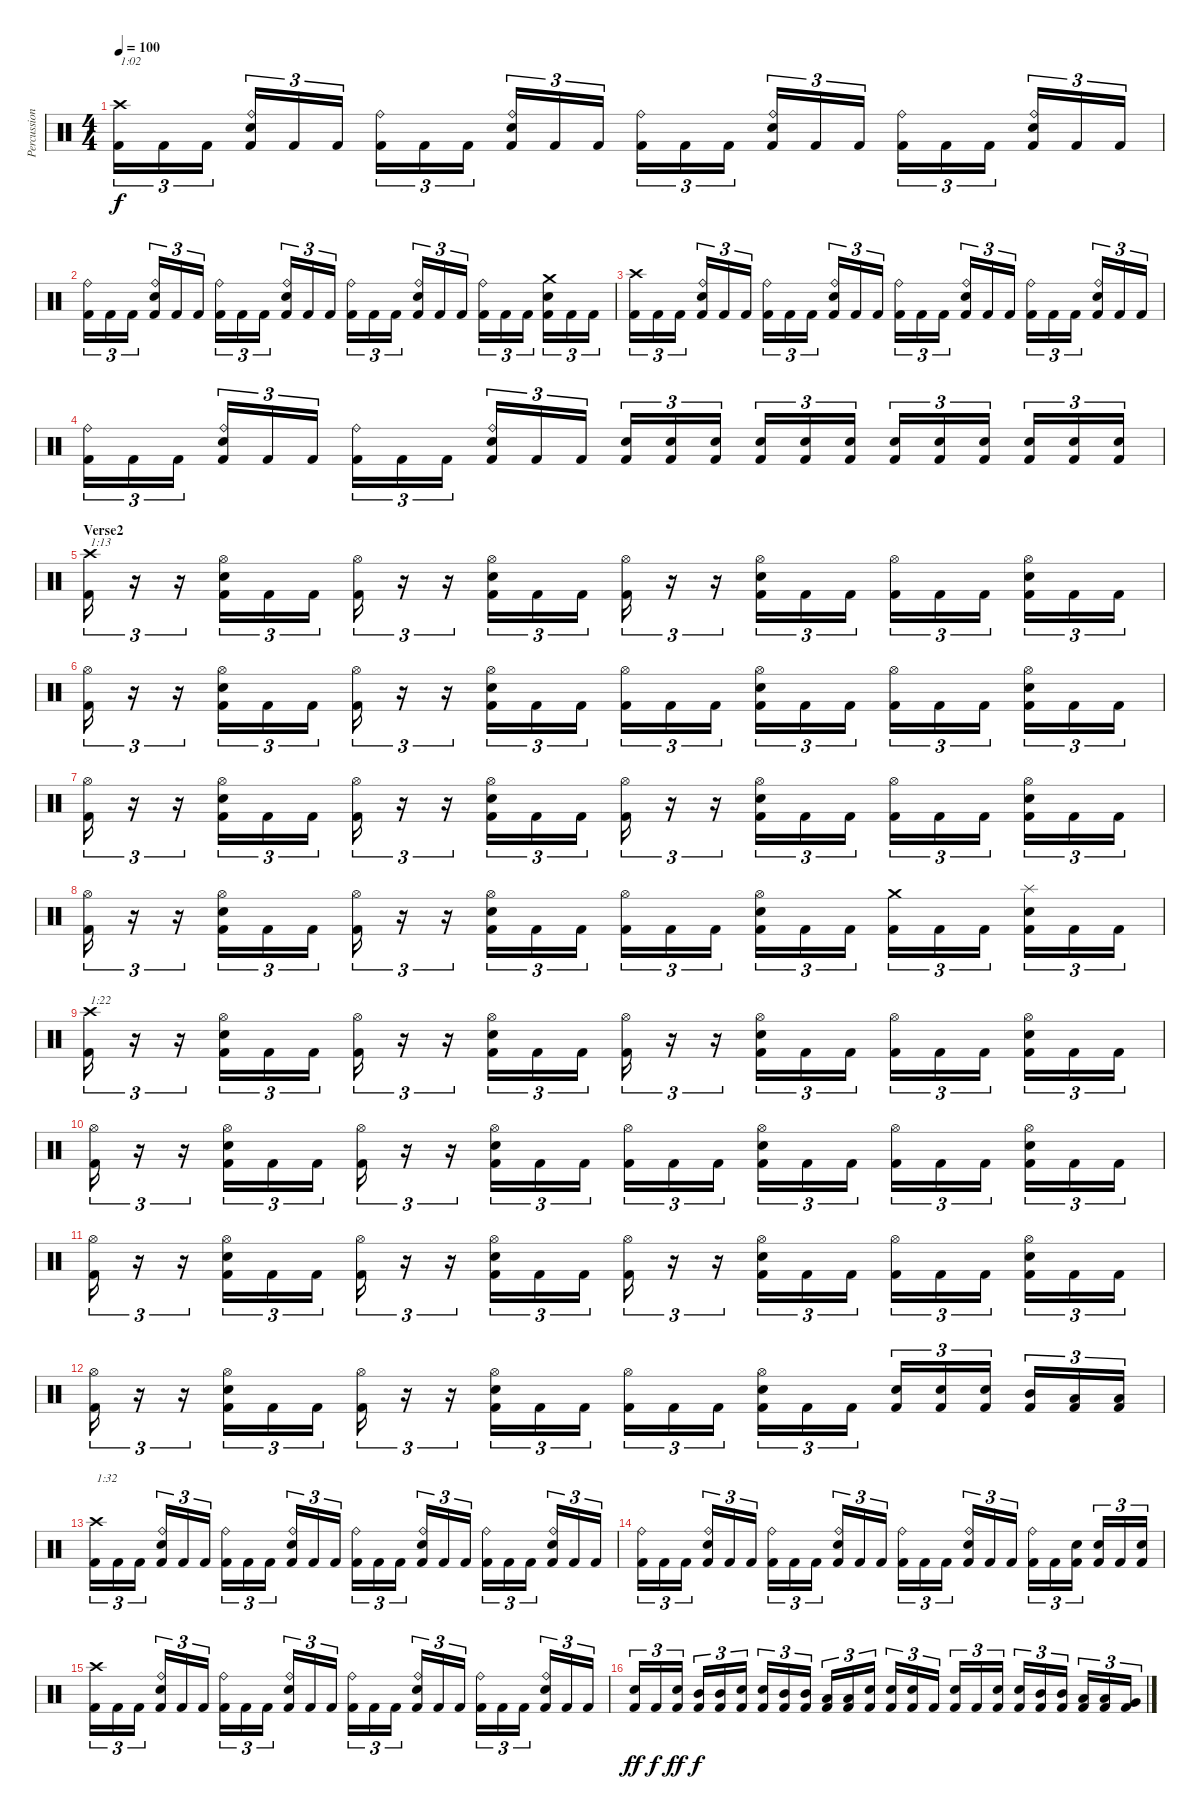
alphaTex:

\track ("Percussion" "Percussion") {instrument percussion}
\staff {score}
\articulation defaults
\ts (4 4)
\tempo 100
\clef neutral
\ks c
("Crash high (hit)" "Kick (hit) 2").16{tu (3 2) txt "1:02" dy f} "Kick (hit) 2".16{tu (3 2)} "Kick (hit) 2".16{tu (3 2)} ("Ride (bell)" "Snare (hit) 2" "Kick (hit) 2").16{tu (3 2)} "Kick (hit) 2".16{tu (3 2)} "Kick (hit) 2".16{tu (3 2)} ("Ride (bell)" "Kick (hit) 2").16{tu (3 2)} "Kick (hit) 2".16{tu (3 2)} "Kick (hit) 2".16{tu (3 2)} ("Ride (bell)" "Snare (hit) 2" "Kick (hit) 2").16{tu (3 2)} "Kick (hit) 2".16{tu (3 2)} "Kick (hit) 2".16{tu (3 2)} ("Ride (bell)" "Kick (hit) 2").16{tu (3 2)} "Kick (hit) 2".16{tu (3 2)} "Kick (hit) 2".16{tu (3 2)} ("Ride (bell)" "Snare (hit) 2" "Kick (hit) 2").16{tu (3 2)} "Kick (hit) 2".16{tu (3 2)} "Kick (hit) 2".16{tu (3 2)} ("Ride (bell)" "Kick (hit) 2").16{tu (3 2)} "Kick (hit) 2".16{tu (3 2)} "Kick (hit) 2".16{tu (3 2)} ("Ride (bell)" "Snare (hit) 2" "Kick (hit) 2").16{tu (3 2)} "Kick (hit) 2".16{tu (3 2)} "Kick (hit) 2".16{tu (3 2)} |
("Ride (bell)" "Kick (hit) 2").16{tu (3 2)} "Kick (hit) 2".16{tu (3 2)} "Kick (hit) 2".16{tu (3 2)} ("Ride (bell)" "Snare (hit) 2" "Kick (hit) 2").16{tu (3 2)} "Kick (hit) 2".16{tu (3 2)} "Kick (hit) 2".16{tu (3 2)} ("Ride (bell)" "Kick (hit) 2").16{tu (3 2)} "Kick (hit) 2".16{tu (3 2)} "Kick (hit) 2".16{tu (3 2)} ("Ride (bell)" "Snare (hit) 2" "Kick (hit) 2").16{tu (3 2)} "Kick (hit) 2".16{tu (3 2)} "Kick (hit) 2".16{tu (3 2)} ("Ride (bell)" "Kick (hit) 2").16{tu (3 2)} "Kick (hit) 2".16{tu (3 2)} "Kick (hit) 2".16{tu (3 2)} ("Ride (bell)" "Snare (hit) 2" "Kick (hit) 2").16{tu (3 2)} "Kick (hit) 2".16{tu (3 2)} "Kick (hit) 2".16{tu (3 2)} ("Ride (bell)" "Kick (hit) 2").16{tu (3 2)} "Kick (hit) 2".16{tu (3 2)} "Kick (hit) 2".16{tu (3 2)} ("Crash medium (hit)" "Snare (hit) 2" "Kick (hit) 2").16{tu (3 2)} "Kick (hit) 2".16{tu (3 2)} "Kick (hit) 2".16{tu (3 2)} |
("Crash high (hit)" "Kick (hit) 2").16{tu (3 2)} "Kick (hit) 2".16{tu (3 2)} "Kick (hit) 2".16{tu (3 2)} ("Ride (bell)" "Snare (hit) 2" "Kick (hit) 2").16{tu (3 2)} "Kick (hit) 2".16{tu (3 2)} "Kick (hit) 2".16{tu (3 2)} ("Ride (bell)" "Kick (hit) 2").16{tu (3 2)} "Kick (hit) 2".16{tu (3 2)} "Kick (hit) 2".16{tu (3 2)} ("Ride (bell)" "Snare (hit) 2" "Kick (hit) 2").16{tu (3 2)} "Kick (hit) 2".16{tu (3 2)} "Kick (hit) 2".16{tu (3 2)} ("Ride (bell)" "Kick (hit) 2").16{tu (3 2)} "Kick (hit) 2".16{tu (3 2)} "Kick (hit) 2".16{tu (3 2)} ("Ride (bell)" "Snare (hit) 2" "Kick (hit) 2").16{tu (3 2)} "Kick (hit) 2".16{tu (3 2)} "Kick (hit) 2".16{tu (3 2)} ("Ride (bell)" "Kick (hit) 2").16{tu (3 2)} "Kick (hit) 2".16{tu (3 2)} "Kick (hit) 2".16{tu (3 2)} ("Ride (bell)" "Snare (hit) 2" "Kick (hit) 2").16{tu (3 2)} "Kick (hit) 2".16{tu (3 2)} "Kick (hit) 2".16{tu (3 2)} |
("Ride (bell)" "Kick (hit) 2").16{tu (3 2)} "Kick (hit) 2".16{tu (3 2)} "Kick (hit) 2".16{tu (3 2)} ("Ride (bell)" "Snare (hit) 2" "Kick (hit) 2").16{tu (3 2)} "Kick (hit) 2".16{tu (3 2)} "Kick (hit) 2".16{tu (3 2)} ("Ride (bell)" "Kick (hit) 2").16{tu (3 2)} "Kick (hit) 2".16{tu (3 2)} "Kick (hit) 2".16{tu (3 2)} ("Ride (bell)" "Snare (hit) 2" "Kick (hit) 2").16{tu (3 2)} "Kick (hit) 2".16{tu (3 2)} "Kick (hit) 2".16{tu (3 2)} ("Snare (hit) 2" "Kick (hit) 2").16{tu (3 2)} ("Snare (hit) 2" "Kick (hit) 2").16{tu (3 2)} ("Snare (hit) 2" "Kick (hit) 2").16{tu (3 2)} ("Snare (hit) 2" "Kick (hit) 2").16{tu (3 2)} ("Snare (hit) 2" "Kick (hit) 2").16{tu (3 2)} ("Snare (hit) 2" "Kick (hit) 2").16{tu (3 2)} ("Snare (hit) 2" "Kick (hit) 2").16{tu (3 2)} ("Snare (hit) 2" "Kick (hit) 2").16{tu (3 2)} ("Snare (hit) 2" "Kick (hit) 2").16{tu (3 2)} ("Snare (hit) 2" "Kick (hit) 2").16{tu (3 2)} ("Snare (hit) 2" "Kick (hit) 2").16{tu (3 2)} ("Snare (hit) 2" "Kick (hit) 2").16{tu (3 2)} |
\section ("" "Verse2")
("Crash high (hit)" "Kick (hit) 2").16{tu (3 2) txt "1:13"} r.16{tu (3 2)} r.16{tu (3 2)} ("Hi-Hat (open)" "Snare (hit) 2" "Kick (hit) 2").16{tu (3 2)} "Kick (hit) 2".16{tu (3 2)} "Kick (hit) 2".16{tu (3 2)} ("Hi-Hat (open)" "Kick (hit) 2").16{tu (3 2)} r.16{tu (3 2)} r.16{tu (3 2)} ("Hi-Hat (open)" "Snare (hit) 2" "Kick (hit) 2").16{tu (3 2)} "Kick (hit) 2".16{tu (3 2)} "Kick (hit) 2".16{tu (3 2)} ("Hi-Hat (open)" "Kick (hit) 2").16{tu (3 2)} r.16{tu (3 2)} r.16{tu (3 2)} ("Hi-Hat (open)" "Snare (hit) 2" "Kick (hit) 2").16{tu (3 2)} "Kick (hit) 2".16{tu (3 2)} "Kick (hit) 2".16{tu (3 2)} ("Hi-Hat (open)" "Kick (hit) 2").16{tu (3 2)} "Kick (hit) 2".16{tu (3 2)} "Kick (hit) 2".16{tu (3 2)} ("Hi-Hat (open)" "Snare (hit) 2" "Kick (hit) 2").16{tu (3 2)} "Kick (hit) 2".16{tu (3 2)} "Kick (hit) 2".16{tu (3 2)} |
("Hi-Hat (open)" "Kick (hit) 2").16{tu (3 2)} r.16{tu (3 2)} r.16{tu (3 2)} ("Hi-Hat (open)" "Snare (hit) 2" "Kick (hit) 2").16{tu (3 2)} "Kick (hit) 2".16{tu (3 2)} "Kick (hit) 2".16{tu (3 2)} ("Hi-Hat (open)" "Kick (hit) 2").16{tu (3 2)} r.16{tu (3 2)} r.16{tu (3 2)} ("Hi-Hat (open)" "Snare (hit) 2" "Kick (hit) 2").16{tu (3 2)} "Kick (hit) 2".16{tu (3 2)} "Kick (hit) 2".16{tu (3 2)} ("Hi-Hat (open)" "Kick (hit) 2").16{tu (3 2)} "Kick (hit) 2".16{tu (3 2)} "Kick (hit) 2".16{tu (3 2)} ("Hi-Hat (open)" "Snare (hit) 2" "Kick (hit) 2").16{tu (3 2)} "Kick (hit) 2".16{tu (3 2)} "Kick (hit) 2".16{tu (3 2)} ("Hi-Hat (open)" "Kick (hit) 2").16{tu (3 2)} "Kick (hit) 2".16{tu (3 2)} "Kick (hit) 2".16{tu (3 2)} ("Hi-Hat (open)" "Snare (hit) 2" "Kick (hit) 2").16{tu (3 2)} "Kick (hit) 2".16{tu (3 2)} "Kick (hit) 2".16{tu (3 2)} |
("Hi-Hat (open)" "Kick (hit) 2").16{tu (3 2)} r.16{tu (3 2)} r.16{tu (3 2)} ("Hi-Hat (open)" "Snare (hit) 2" "Kick (hit) 2").16{tu (3 2)} "Kick (hit) 2".16{tu (3 2)} "Kick (hit) 2".16{tu (3 2)} ("Hi-Hat (open)" "Kick (hit) 2").16{tu (3 2)} r.16{tu (3 2)} r.16{tu (3 2)} ("Hi-Hat (open)" "Snare (hit) 2" "Kick (hit) 2").16{tu (3 2)} "Kick (hit) 2".16{tu (3 2)} "Kick (hit) 2".16{tu (3 2)} ("Hi-Hat (open)" "Kick (hit) 2").16{tu (3 2)} r.16{tu (3 2)} r.16{tu (3 2)} ("Hi-Hat (open)" "Snare (hit) 2" "Kick (hit) 2").16{tu (3 2)} "Kick (hit) 2".16{tu (3 2)} "Kick (hit) 2".16{tu (3 2)} ("Hi-Hat (open)" "Kick (hit) 2").16{tu (3 2)} "Kick (hit) 2".16{tu (3 2)} "Kick (hit) 2".16{tu (3 2)} ("Hi-Hat (open)" "Snare (hit) 2" "Kick (hit) 2").16{tu (3 2)} "Kick (hit) 2".16{tu (3 2)} "Kick (hit) 2".16{tu (3 2)} |
("Hi-Hat (open)" "Kick (hit) 2").16{tu (3 2)} r.16{tu (3 2)} r.16{tu (3 2)} ("Hi-Hat (open)" "Snare (hit) 2" "Kick (hit) 2").16{tu (3 2)} "Kick (hit) 2".16{tu (3 2)} "Kick (hit) 2".16{tu (3 2)} ("Hi-Hat (open)" "Kick (hit) 2").16{tu (3 2)} r.16{tu (3 2)} r.16{tu (3 2)} ("Hi-Hat (open)" "Snare (hit) 2" "Kick (hit) 2").16{tu (3 2)} "Kick (hit) 2".16{tu (3 2)} "Kick (hit) 2".16{tu (3 2)} ("Hi-Hat (open)" "Kick (hit) 2").16{tu (3 2)} "Kick (hit) 2".16{tu (3 2)} "Kick (hit) 2".16{tu (3 2)} ("Hi-Hat (open)" "Snare (hit) 2" "Kick (hit) 2").16{tu (3 2)} "Kick (hit) 2".16{tu (3 2)} "Kick (hit) 2".16{tu (3 2)} ("Crash medium (hit)" "Kick (hit) 2").16{tu (3 2)} "Kick (hit) 2".16{tu (3 2)} "Kick (hit) 2".16{tu (3 2)} ("Splash (hit)" "Snare (hit) 2" "Kick (hit) 2").16{tu (3 2)} "Kick (hit) 2".16{tu (3 2)} "Kick (hit) 2".16{tu (3 2)} |
("Crash high (hit)" "Kick (hit) 2").16{tu (3 2) txt "1:22"} r.16{tu (3 2)} r.16{tu (3 2)} ("Hi-Hat (open)" "Snare (hit) 2" "Kick (hit) 2").16{tu (3 2)} "Kick (hit) 2".16{tu (3 2)} "Kick (hit) 2".16{tu (3 2)} ("Hi-Hat (open)" "Kick (hit) 2").16{tu (3 2)} r.16{tu (3 2)} r.16{tu (3 2)} ("Hi-Hat (open)" "Snare (hit) 2" "Kick (hit) 2").16{tu (3 2)} "Kick (hit) 2".16{tu (3 2)} "Kick (hit) 2".16{tu (3 2)} ("Hi-Hat (open)" "Kick (hit) 2").16{tu (3 2)} r.16{tu (3 2)} r.16{tu (3 2)} ("Hi-Hat (open)" "Snare (hit) 2" "Kick (hit) 2").16{tu (3 2)} "Kick (hit) 2".16{tu (3 2)} "Kick (hit) 2".16{tu (3 2)} ("Hi-Hat (open)" "Kick (hit) 2").16{tu (3 2)} "Kick (hit) 2".16{tu (3 2)} "Kick (hit) 2".16{tu (3 2)} ("Hi-Hat (open)" "Snare (hit) 2" "Kick (hit) 2").16{tu (3 2)} "Kick (hit) 2".16{tu (3 2)} "Kick (hit) 2".16{tu (3 2)} |
("Hi-Hat (open)" "Kick (hit) 2").16{tu (3 2)} r.16{tu (3 2)} r.16{tu (3 2)} ("Hi-Hat (open)" "Snare (hit) 2" "Kick (hit) 2").16{tu (3 2)} "Kick (hit) 2".16{tu (3 2)} "Kick (hit) 2".16{tu (3 2)} ("Hi-Hat (open)" "Kick (hit) 2").16{tu (3 2)} r.16{tu (3 2)} r.16{tu (3 2)} ("Hi-Hat (open)" "Snare (hit) 2" "Kick (hit) 2").16{tu (3 2)} "Kick (hit) 2".16{tu (3 2)} "Kick (hit) 2".16{tu (3 2)} ("Hi-Hat (open)" "Kick (hit) 2").16{tu (3 2)} "Kick (hit) 2".16{tu (3 2)} "Kick (hit) 2".16{tu (3 2)} ("Hi-Hat (open)" "Snare (hit) 2" "Kick (hit) 2").16{tu (3 2)} "Kick (hit) 2".16{tu (3 2)} "Kick (hit) 2".16{tu (3 2)} ("Hi-Hat (open)" "Kick (hit) 2").16{tu (3 2)} "Kick (hit) 2".16{tu (3 2)} "Kick (hit) 2".16{tu (3 2)} ("Hi-Hat (open)" "Snare (hit) 2" "Kick (hit) 2").16{tu (3 2)} "Kick (hit) 2".16{tu (3 2)} "Kick (hit) 2".16{tu (3 2)} |
("Hi-Hat (open)" "Kick (hit) 2").16{tu (3 2)} r.16{tu (3 2)} r.16{tu (3 2)} ("Hi-Hat (open)" "Snare (hit) 2" "Kick (hit) 2").16{tu (3 2)} "Kick (hit) 2".16{tu (3 2)} "Kick (hit) 2".16{tu (3 2)} ("Hi-Hat (open)" "Kick (hit) 2").16{tu (3 2)} r.16{tu (3 2)} r.16{tu (3 2)} ("Hi-Hat (open)" "Snare (hit) 2" "Kick (hit) 2").16{tu (3 2)} "Kick (hit) 2".16{tu (3 2)} "Kick (hit) 2".16{tu (3 2)} ("Hi-Hat (open)" "Kick (hit) 2").16{tu (3 2)} r.16{tu (3 2)} r.16{tu (3 2)} ("Hi-Hat (open)" "Snare (hit) 2" "Kick (hit) 2").16{tu (3 2)} "Kick (hit) 2".16{tu (3 2)} "Kick (hit) 2".16{tu (3 2)} ("Hi-Hat (open)" "Kick (hit) 2").16{tu (3 2)} "Kick (hit) 2".16{tu (3 2)} "Kick (hit) 2".16{tu (3 2)} ("Hi-Hat (open)" "Snare (hit) 2" "Kick (hit) 2").16{tu (3 2)} "Kick (hit) 2".16{tu (3 2)} "Kick (hit) 2".16{tu (3 2)} |
("Hi-Hat (open)" "Kick (hit) 2").16{tu (3 2)} r.16{tu (3 2)} r.16{tu (3 2)} ("Hi-Hat (open)" "Snare (hit) 2" "Kick (hit) 2").16{tu (3 2)} "Kick (hit) 2".16{tu (3 2)} "Kick (hit) 2".16{tu (3 2)} ("Hi-Hat (open)" "Kick (hit) 2").16{tu (3 2)} r.16{tu (3 2)} r.16{tu (3 2)} ("Hi-Hat (open)" "Snare (hit) 2" "Kick (hit) 2").16{tu (3 2)} "Kick (hit) 2".16{tu (3 2)} "Kick (hit) 2".16{tu (3 2)} ("Hi-Hat (open)" "Kick (hit) 2").16{tu (3 2)} "Kick (hit) 2".16{tu (3 2)} "Kick (hit) 2".16{tu (3 2)} ("Hi-Hat (open)" "Snare (hit) 2" "Kick (hit) 2").16{tu (3 2)} "Kick (hit) 2".16{tu (3 2)} "Kick (hit) 2".16{tu (3 2)} ("Snare (hit) 2" "Kick (hit) 2").16{tu (3 2)} ("Snare (hit) 2" "Kick (hit) 2").16{tu (3 2)} ("Snare (hit) 2" "Kick (hit) 2").16{tu (3 2)} ("Mid Tom (hit)" "Kick (hit) 2").16{tu (3 2)} ("Low Tom (hit)" "Kick (hit) 2").16{tu (3 2)} ("Low Tom (hit)" "Kick (hit) 2").16{tu (3 2)} |
("Crash high (hit)" "Kick (hit) 2").16{tu (3 2) txt "1:32"} "Kick (hit) 2".16{tu (3 2)} "Kick (hit) 2".16{tu (3 2)} ("Ride (bell)" "Snare (hit) 2" "Kick (hit) 2").16{tu (3 2)} "Kick (hit) 2".16{tu (3 2)} "Kick (hit) 2".16{tu (3 2)} ("Ride (bell)" "Kick (hit) 2").16{tu (3 2)} "Kick (hit) 2".16{tu (3 2)} "Kick (hit) 2".16{tu (3 2)} ("Ride (bell)" "Snare (hit) 2" "Kick (hit) 2").16{tu (3 2)} "Kick (hit) 2".16{tu (3 2)} "Kick (hit) 2".16{tu (3 2)} ("Ride (bell)" "Kick (hit) 2").16{tu (3 2)} "Kick (hit) 2".16{tu (3 2)} "Kick (hit) 2".16{tu (3 2)} ("Ride (bell)" "Snare (hit) 2" "Kick (hit) 2").16{tu (3 2)} "Kick (hit) 2".16{tu (3 2)} "Kick (hit) 2".16{tu (3 2)} ("Ride (bell)" "Kick (hit) 2").16{tu (3 2)} "Kick (hit) 2".16{tu (3 2)} "Kick (hit) 2".16{tu (3 2)} ("Ride (bell)" "Snare (hit) 2" "Kick (hit) 2").16{tu (3 2)} "Kick (hit) 2".16{tu (3 2)} "Kick (hit) 2".16{tu (3 2)} |
("Ride (bell)" "Kick (hit) 2").16{tu (3 2)} "Kick (hit) 2".16{tu (3 2)} "Kick (hit) 2".16{tu (3 2)} ("Ride (bell)" "Snare (hit) 2" "Kick (hit) 2").16{tu (3 2)} "Kick (hit) 2".16{tu (3 2)} "Kick (hit) 2".16{tu (3 2)} ("Ride (bell)" "Kick (hit) 2").16{tu (3 2)} "Kick (hit) 2".16{tu (3 2)} "Kick (hit) 2".16{tu (3 2)} ("Ride (bell)" "Snare (hit) 2" "Kick (hit) 2").16{tu (3 2)} "Kick (hit) 2".16{tu (3 2)} "Kick (hit) 2".16{tu (3 2)} ("Ride (bell)" "Kick (hit) 2").16{tu (3 2)} "Kick (hit) 2".16{tu (3 2)} "Kick (hit) 2".16{tu (3 2)} ("Ride (bell)" "Snare (hit) 2" "Kick (hit) 2").16{tu (3 2)} "Kick (hit) 2".16{tu (3 2)} "Kick (hit) 2".16{tu (3 2)} ("Ride (bell)" "Kick (hit) 2").16{tu (3 2)} "Kick (hit) 2".16{tu (3 2)} ("Snare (hit) 2" "Kick (hit) 2").16{tu (3 2)} ("Snare (hit) 2" "Kick (hit) 2").16{tu (3 2)} "Kick (hit) 2".16{tu (3 2)} ("Snare (hit) 2" "Kick (hit) 2").16{tu (3 2)} |
("Crash high (hit)" "Kick (hit) 2").16{tu (3 2)} "Kick (hit) 2".16{tu (3 2)} "Kick (hit) 2".16{tu (3 2)} ("Ride (bell)" "Snare (hit) 2" "Kick (hit) 2").16{tu (3 2)} "Kick (hit) 2".16{tu (3 2)} "Kick (hit) 2".16{tu (3 2)} ("Ride (bell)" "Kick (hit) 2").16{tu (3 2)} "Kick (hit) 2".16{tu (3 2)} "Kick (hit) 2".16{tu (3 2)} ("Ride (bell)" "Snare (hit) 2" "Kick (hit) 2").16{tu (3 2)} "Kick (hit) 2".16{tu (3 2)} "Kick (hit) 2".16{tu (3 2)} ("Ride (bell)" "Kick (hit) 2").16{tu (3 2)} "Kick (hit) 2".16{tu (3 2)} "Kick (hit) 2".16{tu (3 2)} ("Ride (bell)" "Snare (hit) 2" "Kick (hit) 2").16{tu (3 2)} "Kick (hit) 2".16{tu (3 2)} "Kick (hit) 2".16{tu (3 2)} ("Ride (bell)" "Kick (hit) 2").16{tu (3 2)} "Kick (hit) 2".16{tu (3 2)} "Kick (hit) 2".16{tu (3 2)} ("Ride (bell)" "Snare (hit) 2" "Kick (hit) 2").16{tu (3 2)} "Kick (hit) 2".16{tu (3 2)} "Kick (hit) 2".16{tu (3 2)} |
("Snare (hit) 2" "Kick (hit) 2").16{tu (3 2) dy ff} "Kick (hit) 2".16{tu (3 2) dy f} ("Snare (hit) 2" "Kick (hit) 2").16{tu (3 2) dy ff} ("Mid Tom (hit)" "Kick (hit) 2").16{tu (3 2) dy f} ("Mid Tom (hit)" "Kick (hit) 2").16{tu (3 2)} ("Snare (hit) 2" "Kick (hit) 2").16{tu (3 2)} ("Snare (hit) 2" "Kick (hit) 2").16{tu (3 2)} ("Mid Tom (hit)" "Kick (hit) 2").16{tu (3 2)} ("Mid Tom (hit)" "Kick (hit) 2").16{tu (3 2)} ("Low Tom (hit)" "Kick (hit) 2").16{tu (3 2)} ("Low Tom (hit)" "Kick (hit) 2").16{tu (3 2)} ("Snare (hit) 2" "Kick (hit) 2").16{tu (3 2)} ("Snare (hit) 2" "Kick (hit) 2").16{tu (3 2)} ("Snare (hit) 2" "Kick (hit) 2").16{tu (3 2)} "Kick (hit) 2".16{tu (3 2)} ("Snare (hit) 2" "Kick (hit) 2").16{tu (3 2)} "Kick (hit) 2".16{tu (3 2)} ("Snare (hit) 2" "Kick (hit) 2").16{tu (3 2)} ("Snare (hit) 2" "Kick (hit) 2").16{tu (3 2)} ("Mid Tom (hit)" "Kick (hit) 2").16{tu (3 2)} ("Mid Tom (hit)" "Kick (hit) 2").16{tu (3 2)} ("Low Tom (hit)" "Kick (hit) 2").16{tu (3 2)} ("Low Tom (hit)" "Kick (hit) 2").16{tu (3 2)} ("Very Low Tom (hit)" "Kick (hit) 2").16{tu (3 2)}
